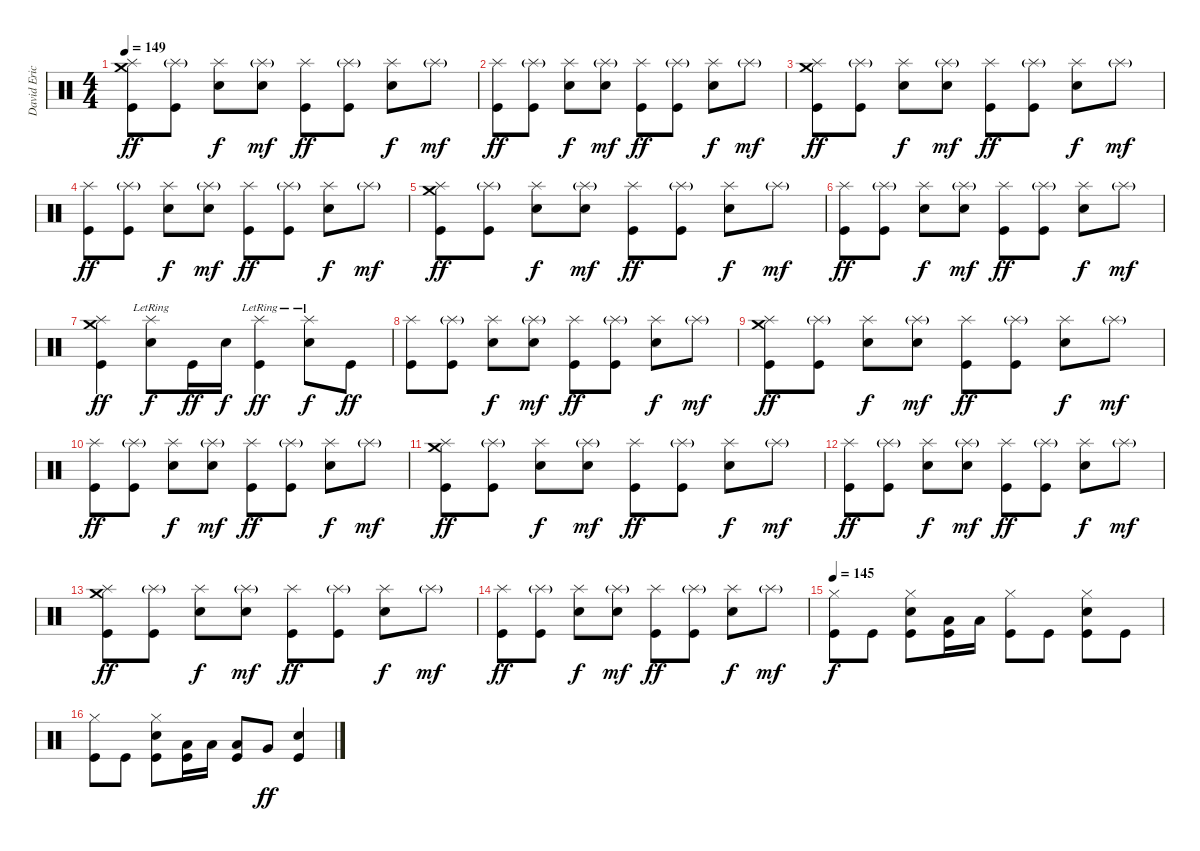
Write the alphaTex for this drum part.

\track ("David Eric Grohl" "David Eric") {instrument percussion}
\staff {score}
\articulation defaults
\ts (4 4)
\tempo 149
\clef neutral
\ks c
("Crash medium (hit)" "Splash (hit)" "Kick (hit)").8{dy ff} ("Splash (hit)"{g} "Kick (hit)").8 ("Splash (hit)" "Snare (hit) 2").8{dy f} ("Splash (hit)"{g} "Snare (hit) 2").8{dy mf} ("Splash (hit)" "Kick (hit)").8{dy ff} ("Splash (hit)"{g} "Kick (hit)").8 ("Splash (hit)" "Snare (hit) 2").8{dy f} "Splash (hit)"{g}.8{dy mf} |
("Splash (hit)" "Kick (hit)").8{dy ff} ("Splash (hit)"{g} "Kick (hit)").8 ("Splash (hit)" "Snare (hit) 2").8{dy f} ("Splash (hit)"{g} "Snare (hit) 2").8{dy mf} ("Splash (hit)" "Kick (hit)").8{dy ff} ("Splash (hit)"{g} "Kick (hit)").8 ("Splash (hit)" "Snare (hit) 2").8{dy f} "Splash (hit)"{g}.8{dy mf} |
("Crash medium (hit)" "Splash (hit)" "Kick (hit)").8{dy ff} ("Splash (hit)"{g} "Kick (hit)").8 ("Splash (hit)" "Snare (hit) 2").8{dy f} ("Splash (hit)"{g} "Snare (hit) 2").8{dy mf} ("Splash (hit)" "Kick (hit)").8{dy ff} ("Splash (hit)"{g} "Kick (hit)").8 ("Splash (hit)" "Snare (hit) 2").8{dy f} "Splash (hit)"{g}.8{dy mf} |
("Splash (hit)" "Kick (hit)").8{dy ff} ("Splash (hit)"{g} "Kick (hit)").8 ("Splash (hit)" "Snare (hit) 2").8{dy f} ("Splash (hit)"{g} "Snare (hit) 2").8{dy mf} ("Splash (hit)" "Kick (hit)").8{dy ff} ("Splash (hit)"{g} "Kick (hit)").8 ("Splash (hit)" "Snare (hit) 2").8{dy f} "Splash (hit)"{g}.8{dy mf} |
("Crash medium (hit)" "Splash (hit)" "Kick (hit)").8{dy ff} ("Splash (hit)"{g} "Kick (hit)").8 ("Splash (hit)" "Snare (hit) 2").8{dy f} ("Splash (hit)"{g} "Snare (hit) 2").8{dy mf} ("Splash (hit)" "Kick (hit)").8{dy ff} ("Splash (hit)"{g} "Kick (hit)").8 ("Splash (hit)" "Snare (hit) 2").8{dy f} "Splash (hit)"{g}.8{dy mf} |
("Splash (hit)" "Kick (hit)").8{dy ff} ("Splash (hit)"{g} "Kick (hit)").8 ("Splash (hit)" "Snare (hit) 2").8{dy f} ("Splash (hit)"{g} "Snare (hit) 2").8{dy mf} ("Splash (hit)" "Kick (hit)").8{dy ff} ("Splash (hit)"{g} "Kick (hit)").8 ("Splash (hit)" "Snare (hit) 2").8{dy f} "Splash (hit)"{g}.8{dy mf} |
("Crash medium (hit)" "Splash (hit)" "Kick (hit)").4{dy ff} ("Splash (hit)"{lr} "Snare (hit) 2").8{dy f} "Kick (hit)".16{dy ff} "Snare (hit) 2".16{dy f} ("Splash (hit)"{lr} "Kick (hit)").4{dy ff} ("Splash (hit)"{lr} "Snare (hit) 2").8{dy f} "Kick (hit)".8{dy ff} |
("Splash (hit)" "Kick (hit)").8 ("Splash (hit)"{g} "Kick (hit)").8 ("Splash (hit)" "Snare (hit) 2").8{dy f} ("Splash (hit)"{g} "Snare (hit) 2").8{dy mf} ("Splash (hit)" "Kick (hit)").8{dy ff} ("Splash (hit)"{g} "Kick (hit)").8 ("Splash (hit)" "Snare (hit) 2").8{dy f} "Splash (hit)"{g}.8{dy mf} |
("Crash medium (hit)" "Splash (hit)" "Kick (hit)").8{dy ff} ("Splash (hit)"{g} "Kick (hit)").8 ("Splash (hit)" "Snare (hit) 2").8{dy f} ("Splash (hit)"{g} "Snare (hit) 2").8{dy mf} ("Splash (hit)" "Kick (hit)").8{dy ff} ("Splash (hit)"{g} "Kick (hit)").8 ("Splash (hit)" "Snare (hit) 2").8{dy f} "Splash (hit)"{g}.8{dy mf} |
("Splash (hit)" "Kick (hit)").8{dy ff} ("Splash (hit)"{g} "Kick (hit)").8 ("Splash (hit)" "Snare (hit) 2").8{dy f} ("Splash (hit)"{g} "Snare (hit) 2").8{dy mf} ("Splash (hit)" "Kick (hit)").8{dy ff} ("Splash (hit)"{g} "Kick (hit)").8 ("Splash (hit)" "Snare (hit) 2").8{dy f} "Splash (hit)"{g}.8{dy mf} |
("Crash medium (hit)" "Splash (hit)" "Kick (hit)").8{dy ff} ("Splash (hit)"{g} "Kick (hit)").8 ("Splash (hit)" "Snare (hit) 2").8{dy f} ("Splash (hit)"{g} "Snare (hit) 2").8{dy mf} ("Splash (hit)" "Kick (hit)").8{dy ff} ("Splash (hit)"{g} "Kick (hit)").8 ("Splash (hit)" "Snare (hit) 2").8{dy f} "Splash (hit)"{g}.8{dy mf} |
("Splash (hit)" "Kick (hit)").8{dy ff} ("Splash (hit)"{g} "Kick (hit)").8 ("Splash (hit)" "Snare (hit) 2").8{dy f} ("Splash (hit)"{g} "Snare (hit) 2").8{dy mf} ("Splash (hit)" "Kick (hit)").8{dy ff} ("Splash (hit)"{g} "Kick (hit)").8 ("Splash (hit)" "Snare (hit) 2").8{dy f} "Splash (hit)"{g}.8{dy mf} |
("Crash medium (hit)" "Splash (hit)" "Kick (hit)").8{dy ff} ("Splash (hit)"{g} "Kick (hit)").8 ("Splash (hit)" "Snare (hit) 2").8{dy f} ("Splash (hit)"{g} "Snare (hit) 2").8{dy mf} ("Splash (hit)" "Kick (hit)").8{dy ff} ("Splash (hit)"{g} "Kick (hit)").8 ("Splash (hit)" "Snare (hit) 2").8{dy f} "Splash (hit)"{g}.8{dy mf} |
("Splash (hit)" "Kick (hit)").8{dy ff} ("Splash (hit)"{g} "Kick (hit)").8 ("Splash (hit)" "Snare (hit) 2").8{dy f} ("Splash (hit)"{g} "Snare (hit) 2").8{dy mf} ("Splash (hit)" "Kick (hit)").8{dy ff} ("Splash (hit)"{g} "Kick (hit)").8 ("Splash (hit)" "Snare (hit) 2").8{dy f} "Splash (hit)"{g}.8{dy mf} |
\tempo 145
("Hi-Hat (closed)" "Kick (hit)").8{dy f} "Kick (hit)".8 ("Snare (hit) 2" "Hi-Hat (closed)" "Kick (hit)").8 ("Low Tom (hit)" "Kick (hit)").16 "Low Tom (hit)".16 ("Hi-Hat (closed)" "Kick (hit)").8 "Kick (hit)".8 ("Snare (hit) 2" "Hi-Hat (closed)" "Kick (hit)").8 "Kick (hit)".8 |
("Hi-Hat (closed)" "Kick (hit)").8 "Kick (hit)".8 ("Snare (hit) 2" "Hi-Hat (closed)" "Kick (hit)").8 ("Low Tom (hit)" "Kick (hit)").16 "Low Tom (hit)".16 ("Low Tom (hit)" "Kick (hit)").8 "Very Low Tom (hit)".8{dy ff} ("Snare (hit) 2" "Kick (hit)").4
